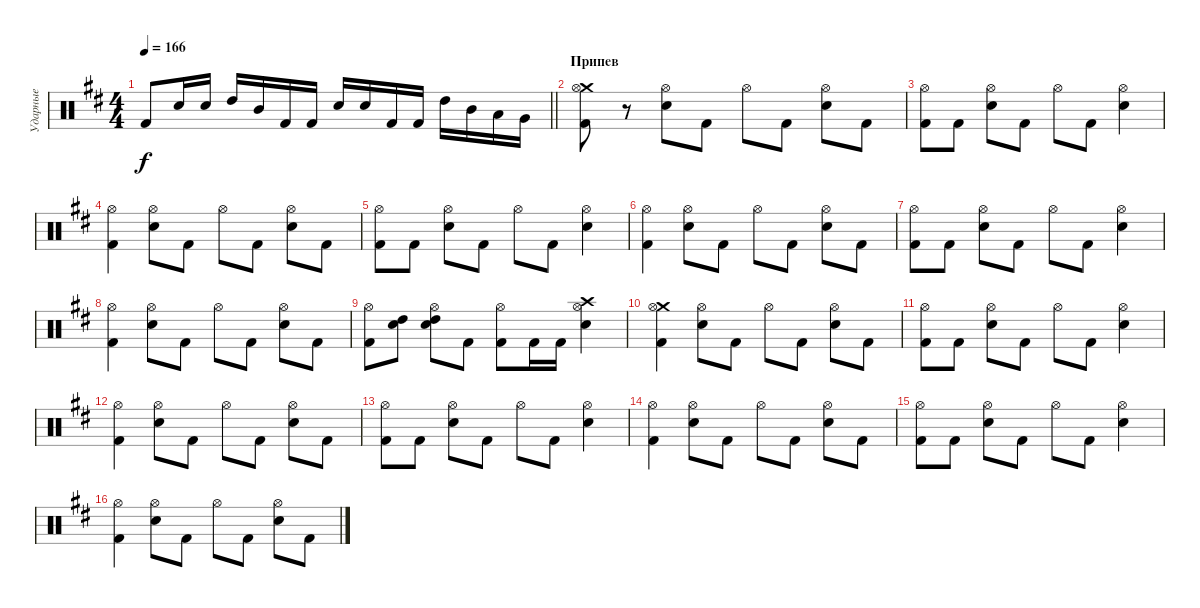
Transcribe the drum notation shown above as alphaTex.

\track ("Ударные" "Ударные") {instrument percussion}
\staff {score}
\articulation defaults
\ts (4 4)
\tempo 166
\clef neutral
\barLineRight lightlight
\ks bminor "Kick (hit) 2".8{dy f} "Electric Snare (hit)".16 "Electric Snare (hit)".16 "High Tom (hit)".16 "Mid Tom (hit)".16 "Kick (hit) 2".16 "Kick (hit) 2".16 "Electric Snare (hit)".16 "Electric Snare (hit)".16 "Kick (hit) 2".16 "Kick (hit) 2".16 "High Tom (hit)".16 "Mid Tom (hit)".16 "Low Tom (hit)".16 "Very Low Tom (hit)".16
|
\section ("" "Припев")
("Crash medium (hit)" "Kick (hit) 2" "Hi-Hat (open)").8 r.8 ("Electric Snare (hit)" "Hi-Hat (open)").8 "Kick (hit) 2".8 "Hi-Hat (open)".8 "Kick (hit) 2".8 ("Electric Snare (hit)" "Hi-Hat (open)").8 "Kick (hit) 2".8 |
("Kick (hit) 2" "Hi-Hat (open)").8 "Kick (hit) 2".8 ("Electric Snare (hit)" "Hi-Hat (open)").8 "Kick (hit) 2".8 "Hi-Hat (open)".8 "Kick (hit) 2".8 ("Electric Snare (hit)" "Hi-Hat (open)").4 |
("Kick (hit) 2" "Hi-Hat (open)").4 ("Electric Snare (hit)" "Hi-Hat (open)").8 "Kick (hit) 2".8 "Hi-Hat (open)".8 "Kick (hit) 2".8 ("Electric Snare (hit)" "Hi-Hat (open)").8 "Kick (hit) 2".8 |
("Kick (hit) 2" "Hi-Hat (open)").8 "Kick (hit) 2".8 ("Electric Snare (hit)" "Hi-Hat (open)").8 "Kick (hit) 2".8 "Hi-Hat (open)".8 "Kick (hit) 2".8 ("Electric Snare (hit)" "Hi-Hat (open)").4 |
("Kick (hit) 2" "Hi-Hat (open)").4 ("Electric Snare (hit)" "Hi-Hat (open)").8 "Kick (hit) 2".8 "Hi-Hat (open)".8 "Kick (hit) 2".8 ("Electric Snare (hit)" "Hi-Hat (open)").8 "Kick (hit) 2".8 |
("Kick (hit) 2" "Hi-Hat (open)").8 "Kick (hit) 2".8 ("Electric Snare (hit)" "Hi-Hat (open)").8 "Kick (hit) 2".8 "Hi-Hat (open)".8 "Kick (hit) 2".8 ("Electric Snare (hit)" "Hi-Hat (open)").4 |
("Kick (hit) 2" "Hi-Hat (open)").4 ("Electric Snare (hit)" "Hi-Hat (open)").8 "Kick (hit) 2".8 "Hi-Hat (open)".8 "Kick (hit) 2".8 ("Electric Snare (hit)" "Hi-Hat (open)").8 "Kick (hit) 2".8 |
("Kick (hit) 2" "Hi-Hat (open)").8 ("High Tom (hit)" "Electric Snare (hit)").8 ("High Tom (hit)" "Electric Snare (hit)" "Hi-Hat (open)").8 "Kick (hit) 2".8 ("Kick (hit) 2" "Hi-Hat (open)").8 "Kick (hit) 2".16 "Kick (hit) 2".16 ("Crash high (hit)" "Electric Snare (hit)" "Hi-Hat (open)").4 |
("Crash medium (hit)" "Kick (hit) 2" "Hi-Hat (open)").4 ("Electric Snare (hit)" "Hi-Hat (open)").8 "Kick (hit) 2".8 "Hi-Hat (open)".8 "Kick (hit) 2".8 ("Electric Snare (hit)" "Hi-Hat (open)").8 "Kick (hit) 2".8 |
("Kick (hit) 2" "Hi-Hat (open)").8 "Kick (hit) 2".8 ("Electric Snare (hit)" "Hi-Hat (open)").8 "Kick (hit) 2".8 "Hi-Hat (open)".8 "Kick (hit) 2".8 ("Electric Snare (hit)" "Hi-Hat (open)").4 |
("Kick (hit) 2" "Hi-Hat (open)").4 ("Electric Snare (hit)" "Hi-Hat (open)").8 "Kick (hit) 2".8 "Hi-Hat (open)".8 "Kick (hit) 2".8 ("Electric Snare (hit)" "Hi-Hat (open)").8 "Kick (hit) 2".8 |
("Kick (hit) 2" "Hi-Hat (open)").8 "Kick (hit) 2".8 ("Electric Snare (hit)" "Hi-Hat (open)").8 "Kick (hit) 2".8 "Hi-Hat (open)".8 "Kick (hit) 2".8 ("Electric Snare (hit)" "Hi-Hat (open)").4 |
("Kick (hit) 2" "Hi-Hat (open)").4 ("Electric Snare (hit)" "Hi-Hat (open)").8 "Kick (hit) 2".8 "Hi-Hat (open)".8 "Kick (hit) 2".8 ("Electric Snare (hit)" "Hi-Hat (open)").8 "Kick (hit) 2".8 |
("Kick (hit) 2" "Hi-Hat (open)").8 "Kick (hit) 2".8 ("Electric Snare (hit)" "Hi-Hat (open)").8 "Kick (hit) 2".8 "Hi-Hat (open)".8 "Kick (hit) 2".8 ("Electric Snare (hit)" "Hi-Hat (open)").4 |
("Kick (hit) 2" "Hi-Hat (open)").4 ("Electric Snare (hit)" "Hi-Hat (open)").8 "Kick (hit) 2".8 "Hi-Hat (open)".8 "Kick (hit) 2".8 ("Electric Snare (hit)" "Hi-Hat (open)").8 "Kick (hit) 2".8
